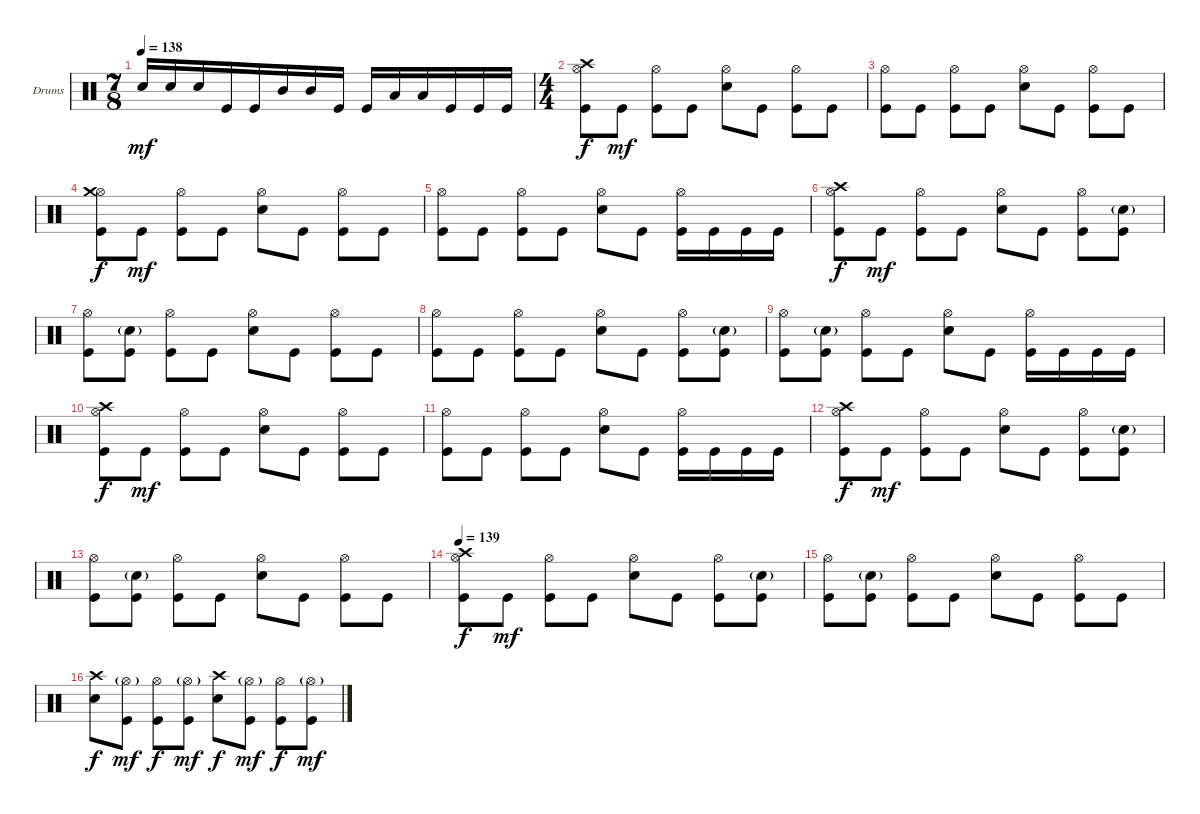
\defaultSystemsLayout 4
\bracketExtendMode groupsimilarinstruments
\firstSystemTrackNameOrientation horizontal
\otherSystemsTrackNameOrientation horizontal
\track ("Valverde Drums" "Drums") {instrument percussion}
\staff {score}
\articulation defaults
\ts (7 8)
\tempo 138
\clef neutral
\ks c "Snare (hit) 2".16{dy mf} "Snare (hit) 2".16 "Snare (hit) 2".16 "Kick (hit)".16 "Kick (hit)".16 "Mid Tom (hit)".16 "Mid Tom (hit)".16 "Kick (hit)".16 "Kick (hit)".16 "Low Tom (hit)".16 "Low Tom (hit)".16 "Kick (hit)".16 "Kick (hit)".16 "Kick (hit)".16
|
\ts (4 4)
("Kick (hit)" "Hi-Hat (open)" "Crash high (hit)").8{dy f} "Kick (hit)".8{dy mf} ("Kick (hit)" "Hi-Hat (open)").8 "Kick (hit)".8 ("Hi-Hat (open)" "Snare (hit) 2").8 "Kick (hit)".8 ("Kick (hit)" "Hi-Hat (open)").8 "Kick (hit)".8 |
("Kick (hit)" "Hi-Hat (open)").8 "Kick (hit)".8 ("Kick (hit)" "Hi-Hat (open)").8 "Kick (hit)".8 ("Hi-Hat (open)" "Snare (hit) 2").8 "Kick (hit)".8 ("Kick (hit)" "Hi-Hat (open)").8 "Kick (hit)".8 |
("Kick (hit)" "Hi-Hat (open)" "Crash medium (hit)").8{dy f} "Kick (hit)".8{dy mf} ("Kick (hit)" "Hi-Hat (open)").8 "Kick (hit)".8 ("Hi-Hat (open)" "Snare (hit) 2").8 "Kick (hit)".8 ("Kick (hit)" "Hi-Hat (open)").8 "Kick (hit)".8 |
("Kick (hit)" "Hi-Hat (open)").8 "Kick (hit)".8 ("Kick (hit)" "Hi-Hat (open)").8 "Kick (hit)".8 ("Hi-Hat (open)" "Snare (hit) 2").8 "Kick (hit)".8 ("Kick (hit)" "Hi-Hat (open)").16 "Kick (hit)".16 "Kick (hit)".16 "Kick (hit)".16 |
("Kick (hit)" "Hi-Hat (open)" "Crash high (hit)").8{dy f} "Kick (hit)".8{dy mf} ("Kick (hit)" "Hi-Hat (open)").8 "Kick (hit)".8 ("Hi-Hat (open)" "Snare (hit) 2").8 "Kick (hit)".8 ("Kick (hit)" "Hi-Hat (open)").8 ("Kick (hit)" "Snare (hit) 2"{g}).8 |
("Kick (hit)" "Hi-Hat (open)").8 ("Kick (hit)" "Snare (hit) 2"{g}).8 ("Kick (hit)" "Hi-Hat (open)").8 "Kick (hit)".8 ("Hi-Hat (open)" "Snare (hit) 2").8 "Kick (hit)".8 ("Kick (hit)" "Hi-Hat (open)").8 "Kick (hit)".8 |
("Kick (hit)" "Hi-Hat (open)").8 "Kick (hit)".8 ("Kick (hit)" "Hi-Hat (open)").8 "Kick (hit)".8 ("Hi-Hat (open)" "Snare (hit) 2").8 "Kick (hit)".8 ("Kick (hit)" "Hi-Hat (open)").8 ("Kick (hit)" "Snare (hit) 2"{g}).8 |
("Kick (hit)" "Hi-Hat (open)").8 ("Kick (hit)" "Snare (hit) 2"{g}).8 ("Kick (hit)" "Hi-Hat (open)").8 "Kick (hit)".8 ("Hi-Hat (open)" "Snare (hit) 2").8 "Kick (hit)".8 ("Kick (hit)" "Hi-Hat (open)").16 "Kick (hit)".16 "Kick (hit)".16 "Kick (hit)".16 |
("Kick (hit)" "Hi-Hat (open)" "Crash high (hit)").8{dy f} "Kick (hit)".8{dy mf} ("Kick (hit)" "Hi-Hat (open)").8 "Kick (hit)".8 ("Hi-Hat (open)" "Snare (hit) 2").8 "Kick (hit)".8 ("Kick (hit)" "Hi-Hat (open)").8 "Kick (hit)".8 |
("Kick (hit)" "Hi-Hat (open)").8 "Kick (hit)".8 ("Kick (hit)" "Hi-Hat (open)").8 "Kick (hit)".8 ("Hi-Hat (open)" "Snare (hit) 2").8 "Kick (hit)".8 ("Kick (hit)" "Hi-Hat (open)").16 "Kick (hit)".16 "Kick (hit)".16 "Kick (hit)".16 |
("Kick (hit)" "Hi-Hat (open)" "Crash high (hit)").8{dy f} "Kick (hit)".8{dy mf} ("Kick (hit)" "Hi-Hat (open)").8 "Kick (hit)".8 ("Hi-Hat (open)" "Snare (hit) 2").8 "Kick (hit)".8 ("Kick (hit)" "Hi-Hat (open)").8 ("Kick (hit)" "Snare (hit) 2"{g}).8 |
("Kick (hit)" "Hi-Hat (open)").8 ("Kick (hit)" "Snare (hit) 2"{g}).8 ("Kick (hit)" "Hi-Hat (open)").8 "Kick (hit)".8 ("Hi-Hat (open)" "Snare (hit) 2").8 "Kick (hit)".8 ("Kick (hit)" "Hi-Hat (open)").8 "Kick (hit)".8 |
\tempo 139
("Kick (hit)" "Hi-Hat (open)" "Crash high (hit)").8{dy f} "Kick (hit)".8{dy mf} ("Kick (hit)" "Hi-Hat (open)").8 "Kick (hit)".8 ("Hi-Hat (open)" "Snare (hit) 2").8 "Kick (hit)".8 ("Kick (hit)" "Hi-Hat (open)").8 ("Kick (hit)" "Snare (hit) 2"{g}).8 |
("Kick (hit)" "Hi-Hat (open)").8 ("Kick (hit)" "Snare (hit) 2"{g}).8 ("Kick (hit)" "Hi-Hat (open)").8 "Kick (hit)".8 ("Hi-Hat (open)" "Snare (hit) 2").8 "Kick (hit)".8 ("Kick (hit)" "Hi-Hat (open)").8 "Kick (hit)".8 |
("Crash high (hit)" "Snare (hit) 2").8{dy f} ("Kick (hit)" "Hi-Hat (open)"{g}).8{dy mf} ("Kick (hit)" "Hi-Hat (open)").8{dy f} ("Hi-Hat (open)"{g} "Kick (hit)").8{dy mf} ("Snare (hit) 2" "Crash high (hit)").8{dy f} ("Kick (hit)" "Hi-Hat (open)"{g}).8{dy mf} ("Kick (hit)" "Hi-Hat (open)").8{dy f} ("Kick (hit)" "Hi-Hat (open)"{g}).8{dy mf}
